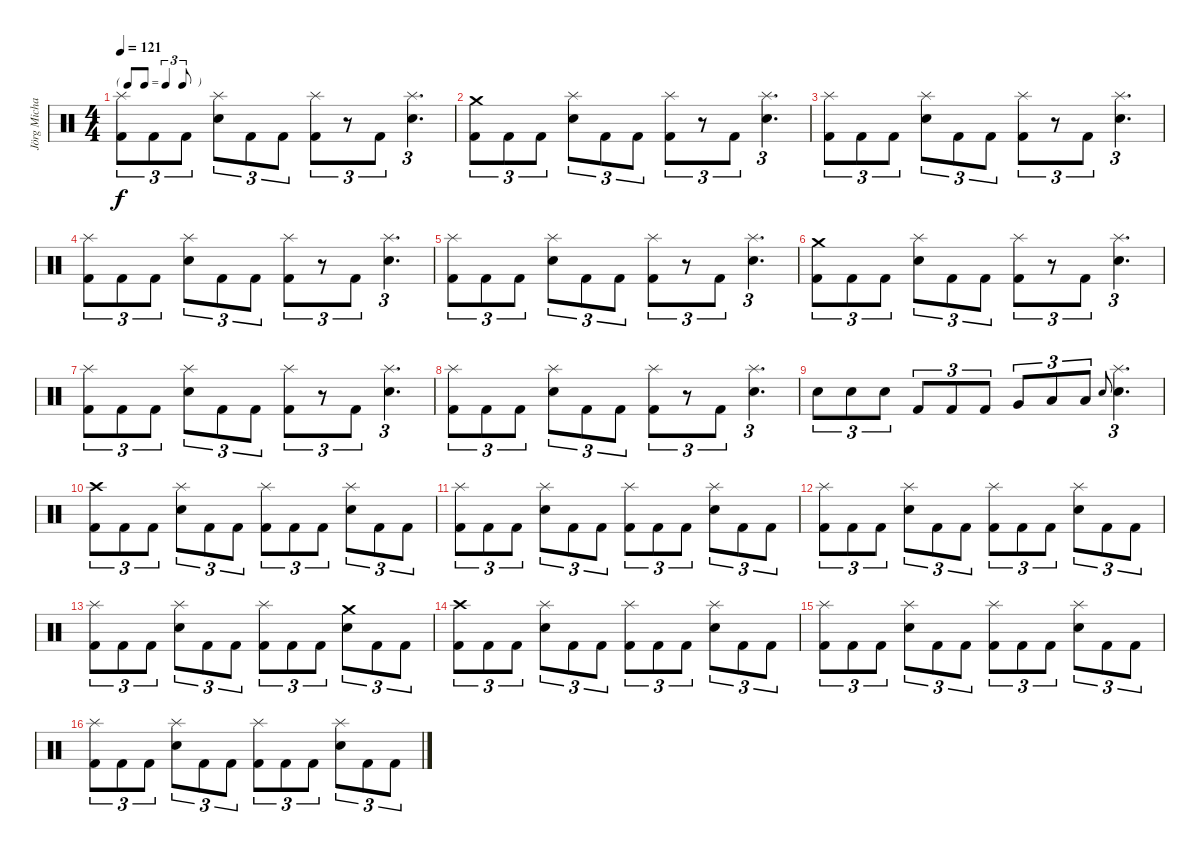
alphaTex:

\track ("Jörg Michael" "Jörg Micha") {instrument percussion}
\staff {score}
\articulation defaults
\ts (4 4)
\tf triplet8th
\tempo 121
\clef neutral
\ks c
("Splash (hit)" "Kick (hit) 2").8{tu (3 2) dy f} "Kick (hit) 2".8{tu (3 2)} "Kick (hit) 2".8{tu (3 2)} ("Splash (hit)" "Snare (hit) 2").8{tu (3 2)} "Kick (hit) 2".8{tu (3 2)} "Kick (hit) 2".8{tu (3 2)} ("Splash (hit)" "Kick (hit) 2").8{tu (3 2)} r.8{tu (3 2)} "Kick (hit) 2".8{tu (3 2)} ("Splash (hit)" "Snare (hit) 2").4{d tu (3 2)} |
("Crash medium (hit)" "Kick (hit) 2").8{tu (3 2)} "Kick (hit) 2".8{tu (3 2)} "Kick (hit) 2".8{tu (3 2)} ("Splash (hit)" "Snare (hit) 2").8{tu (3 2)} "Kick (hit) 2".8{tu (3 2)} "Kick (hit) 2".8{tu (3 2)} ("Splash (hit)" "Kick (hit) 2").8{tu (3 2)} r.8{tu (3 2)} "Kick (hit) 2".8{tu (3 2)} ("Splash (hit)" "Snare (hit) 2").4{d tu (3 2)} |
("Splash (hit)" "Kick (hit) 2").8{tu (3 2)} "Kick (hit) 2".8{tu (3 2)} "Kick (hit) 2".8{tu (3 2)} ("Splash (hit)" "Snare (hit) 2").8{tu (3 2)} "Kick (hit) 2".8{tu (3 2)} "Kick (hit) 2".8{tu (3 2)} ("Splash (hit)" "Kick (hit) 2").8{tu (3 2)} r.8{tu (3 2)} "Kick (hit) 2".8{tu (3 2)} ("Splash (hit)" "Snare (hit) 2").4{d tu (3 2)} |
("Splash (hit)" "Kick (hit) 2").8{tu (3 2)} "Kick (hit) 2".8{tu (3 2)} "Kick (hit) 2".8{tu (3 2)} ("Splash (hit)" "Snare (hit) 2").8{tu (3 2)} "Kick (hit) 2".8{tu (3 2)} "Kick (hit) 2".8{tu (3 2)} ("Splash (hit)" "Kick (hit) 2").8{tu (3 2)} r.8{tu (3 2)} "Kick (hit) 2".8{tu (3 2)} ("Splash (hit)" "Snare (hit) 2").4{d tu (3 2)} |
("Splash (hit)" "Kick (hit) 2").8{tu (3 2)} "Kick (hit) 2".8{tu (3 2)} "Kick (hit) 2".8{tu (3 2)} ("Splash (hit)" "Snare (hit) 2").8{tu (3 2)} "Kick (hit) 2".8{tu (3 2)} "Kick (hit) 2".8{tu (3 2)} ("Splash (hit)" "Kick (hit) 2").8{tu (3 2)} r.8{tu (3 2)} "Kick (hit) 2".8{tu (3 2)} ("Splash (hit)" "Snare (hit) 2").4{d tu (3 2)} |
("Crash medium (hit)" "Kick (hit) 2").8{tu (3 2)} "Kick (hit) 2".8{tu (3 2)} "Kick (hit) 2".8{tu (3 2)} ("Splash (hit)" "Snare (hit) 2").8{tu (3 2)} "Kick (hit) 2".8{tu (3 2)} "Kick (hit) 2".8{tu (3 2)} ("Splash (hit)" "Kick (hit) 2").8{tu (3 2)} r.8{tu (3 2)} "Kick (hit) 2".8{tu (3 2)} ("Splash (hit)" "Snare (hit) 2").4{d tu (3 2)} |
("Splash (hit)" "Kick (hit) 2").8{tu (3 2)} "Kick (hit) 2".8{tu (3 2)} "Kick (hit) 2".8{tu (3 2)} ("Splash (hit)" "Snare (hit) 2").8{tu (3 2)} "Kick (hit) 2".8{tu (3 2)} "Kick (hit) 2".8{tu (3 2)} ("Splash (hit)" "Kick (hit) 2").8{tu (3 2)} r.8{tu (3 2)} "Kick (hit) 2".8{tu (3 2)} ("Splash (hit)" "Snare (hit) 2").4{d tu (3 2)} |
("Splash (hit)" "Kick (hit) 2").8{tu (3 2)} "Kick (hit) 2".8{tu (3 2)} "Kick (hit) 2".8{tu (3 2)} ("Splash (hit)" "Snare (hit) 2").8{tu (3 2)} "Kick (hit) 2".8{tu (3 2)} "Kick (hit) 2".8{tu (3 2)} ("Splash (hit)" "Kick (hit) 2").8{tu (3 2)} r.8{tu (3 2)} "Kick (hit) 2".8{tu (3 2)} ("Splash (hit)" "Snare (hit) 2").4{d tu (3 2)} |
"Snare (hit) 2".8{tu (3 2)} "Snare (hit) 2".8{tu (3 2)} "Snare (hit) 2".8{tu (3 2)} "Kick (hit) 2".8{tu (3 2)} "Kick (hit) 2".8{tu (3 2)} "Kick (hit) 2".8{tu (3 2)} "Very Low Tom (hit)".8{tu (3 2)} "Low Floor Tom (hit)".8{tu (3 2)} "Low Floor Tom (hit)".8{tu (3 2)} "Snare (hit) 2".8{gr onbeat} ("Splash (hit)" "Snare (hit) 2").4{d tu (3 2)} |
("Crash high (hit)" "Kick (hit) 2").8{tu (3 2)} "Kick (hit) 2".8{tu (3 2)} "Kick (hit) 2".8{tu (3 2)} ("Splash (hit)" "Snare (hit) 2").8{tu (3 2)} "Kick (hit) 2".8{tu (3 2)} "Kick (hit) 2".8{tu (3 2)} ("Splash (hit)" "Kick (hit) 2").8{tu (3 2)} "Kick (hit) 2".8{tu (3 2)} "Kick (hit) 2".8{tu (3 2)} ("Splash (hit)" "Snare (hit) 2").8{tu (3 2)} "Kick (hit) 2".8{tu (3 2)} "Kick (hit) 2".8{tu (3 2)} |
("Splash (hit)" "Kick (hit) 2").8{tu (3 2)} "Kick (hit) 2".8{tu (3 2)} "Kick (hit) 2".8{tu (3 2)} ("Splash (hit)" "Snare (hit) 2").8{tu (3 2)} "Kick (hit) 2".8{tu (3 2)} "Kick (hit) 2".8{tu (3 2)} ("Splash (hit)" "Kick (hit) 2").8{tu (3 2)} "Kick (hit) 2".8{tu (3 2)} "Kick (hit) 2".8{tu (3 2)} ("Splash (hit)" "Snare (hit) 2").8{tu (3 2)} "Kick (hit) 2".8{tu (3 2)} "Kick (hit) 2".8{tu (3 2)} |
("Splash (hit)" "Kick (hit) 2").8{tu (3 2)} "Kick (hit) 2".8{tu (3 2)} "Kick (hit) 2".8{tu (3 2)} ("Splash (hit)" "Snare (hit) 2").8{tu (3 2)} "Kick (hit) 2".8{tu (3 2)} "Kick (hit) 2".8{tu (3 2)} ("Splash (hit)" "Kick (hit) 2").8{tu (3 2)} "Kick (hit) 2".8{tu (3 2)} "Kick (hit) 2".8{tu (3 2)} ("Splash (hit)" "Snare (hit) 2").8{tu (3 2)} "Kick (hit) 2".8{tu (3 2)} "Kick (hit) 2".8{tu (3 2)} |
("Splash (hit)" "Kick (hit) 2").8{tu (3 2)} "Kick (hit) 2".8{tu (3 2)} "Kick (hit) 2".8{tu (3 2)} ("Splash (hit)" "Snare (hit) 2").8{tu (3 2)} "Kick (hit) 2".8{tu (3 2)} "Kick (hit) 2".8{tu (3 2)} ("Splash (hit)" "Kick (hit) 2").8{tu (3 2)} "Kick (hit) 2".8{tu (3 2)} "Kick (hit) 2".8{tu (3 2)} ("Crash medium (hit)" "Snare (hit) 2").8{tu (3 2)} "Kick (hit) 2".8{tu (3 2)} "Kick (hit) 2".8{tu (3 2)} |
("Crash high (hit)" "Kick (hit) 2").8{tu (3 2)} "Kick (hit) 2".8{tu (3 2)} "Kick (hit) 2".8{tu (3 2)} ("Splash (hit)" "Snare (hit) 2").8{tu (3 2)} "Kick (hit) 2".8{tu (3 2)} "Kick (hit) 2".8{tu (3 2)} ("Splash (hit)" "Kick (hit) 2").8{tu (3 2)} "Kick (hit) 2".8{tu (3 2)} "Kick (hit) 2".8{tu (3 2)} ("Splash (hit)" "Snare (hit) 2").8{tu (3 2)} "Kick (hit) 2".8{tu (3 2)} "Kick (hit) 2".8{tu (3 2)} |
("Splash (hit)" "Kick (hit) 2").8{tu (3 2)} "Kick (hit) 2".8{tu (3 2)} "Kick (hit) 2".8{tu (3 2)} ("Splash (hit)" "Snare (hit) 2").8{tu (3 2)} "Kick (hit) 2".8{tu (3 2)} "Kick (hit) 2".8{tu (3 2)} ("Splash (hit)" "Kick (hit) 2").8{tu (3 2)} "Kick (hit) 2".8{tu (3 2)} "Kick (hit) 2".8{tu (3 2)} ("Splash (hit)" "Snare (hit) 2").8{tu (3 2)} "Kick (hit) 2".8{tu (3 2)} "Kick (hit) 2".8{tu (3 2)} |
("Splash (hit)" "Kick (hit) 2").8{tu (3 2)} "Kick (hit) 2".8{tu (3 2)} "Kick (hit) 2".8{tu (3 2)} ("Splash (hit)" "Snare (hit) 2").8{tu (3 2)} "Kick (hit) 2".8{tu (3 2)} "Kick (hit) 2".8{tu (3 2)} ("Splash (hit)" "Kick (hit) 2").8{tu (3 2)} "Kick (hit) 2".8{tu (3 2)} "Kick (hit) 2".8{tu (3 2)} ("Splash (hit)" "Snare (hit) 2").8{tu (3 2)} "Kick (hit) 2".8{tu (3 2)} "Kick (hit) 2".8{tu (3 2)}
